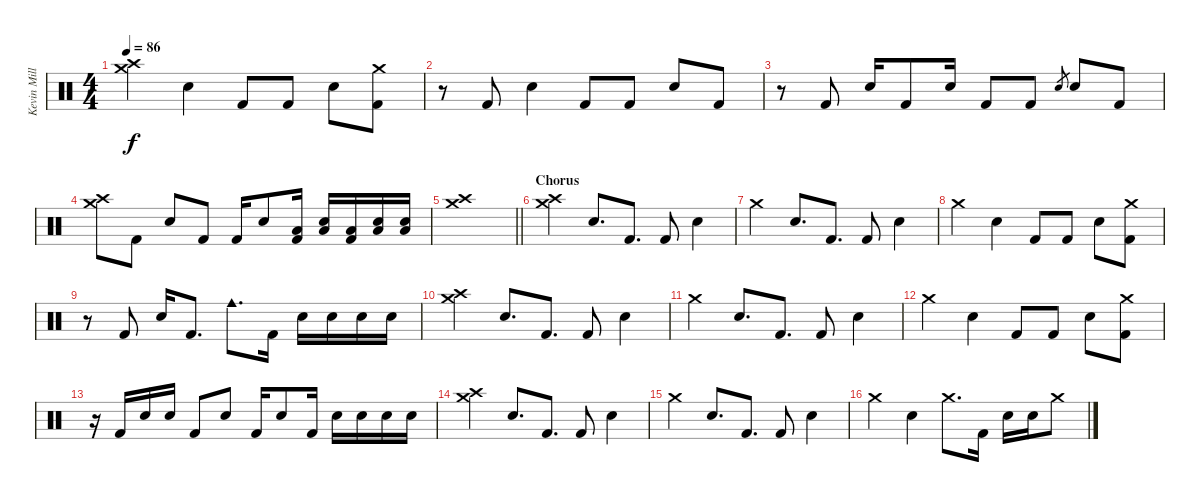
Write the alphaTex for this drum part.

\track ("Kevin Miller (Drums)" "Kevin Mill") {instrument percussion}
\staff {score}
\articulation defaults
\ts (4 4)
\tempo 86
\clef neutral
\ks c
("Crash medium (hit)" "Crash high (hit)").4{dy f} "Electric Snare (hit)".4 "Kick (hit) 2".8 "Kick (hit) 2".8 "Electric Snare (hit)".8 ("Kick (hit) 2" "Crash medium (hit)").8 |
r.8 "Kick (hit) 2".8 "Electric Snare (hit)".4 "Kick (hit) 2".8 "Kick (hit) 2".8 "Electric Snare (hit)".8 "Kick (hit) 2".8 |
r.8 "Kick (hit) 2".8 "Electric Snare (hit)".16 "Kick (hit) 2".8 "Electric Snare (hit)".16 "Kick (hit) 2".8 "Kick (hit) 2".8 "Electric Snare (hit)".8{gr} "Electric Snare (hit)".8 "Kick (hit) 2".8 |
("Crash medium (hit)" "Crash high (hit)").8 "Kick (hit) 2".8 "Electric Snare (hit)".8 "Kick (hit) 2".8 "Kick (hit) 2".16 "Electric Snare (hit)".8 ("Kick (hit) 2" "Low Tom (hit)").16 ("Electric Snare (hit)" "Low Tom (hit)").16 ("Kick (hit) 2" "Low Tom (hit)").16 ("Electric Snare (hit)" "Low Tom (hit)").16 ("Electric Snare (hit)" "Low Tom (hit)").16 |
\barLineRight lightlight
("Crash medium (hit)" "Crash high (hit)").1 |
\section ("" "Chorus")
("Crash medium (hit)" "Crash high (hit)").4 "Electric Snare (hit)".8{d} "Kick (hit) 2".8{d} "Kick (hit) 2".8 "Electric Snare (hit)".4 |
"Crash medium (hit)".4 "Electric Snare (hit)".8{d} "Kick (hit) 2".8{d} "Kick (hit) 2".8 "Electric Snare (hit)".4 |
"Crash medium (hit)".4 "Electric Snare (hit)".4 "Kick (hit) 2".8 "Kick (hit) 2".8 "Electric Snare (hit)".8 ("Crash medium (hit)" "Kick (hit) 2").8 |
r.8 "Kick (hit) 2".8 "Electric Snare (hit)".16 "Kick (hit) 2".8{d} "Cowbell medium (hit)".8{d} "Kick (hit) 2".16 "Electric Snare (hit)".16 "Electric Snare (hit)".16 "Electric Snare (hit)".16 "Electric Snare (hit)".16 |
("Crash medium (hit)" "Crash high (hit)").4 "Electric Snare (hit)".8{d} "Kick (hit) 2".8{d} "Kick (hit) 2".8 "Electric Snare (hit)".4 |
"Crash medium (hit)".4 "Electric Snare (hit)".8{d} "Kick (hit) 2".8{d} "Kick (hit) 2".8 "Electric Snare (hit)".4 |
"Crash medium (hit)".4 "Electric Snare (hit)".4 "Kick (hit) 2".8 "Kick (hit) 2".8 "Electric Snare (hit)".8 ("Crash medium (hit)" "Kick (hit) 2").8 |
r.16 "Kick (hit) 2".16 "Electric Snare (hit)".16 "Electric Snare (hit)".16 "Kick (hit) 2".8 "Electric Snare (hit)".8 "Kick (hit) 2".16 "Electric Snare (hit)".8 "Kick (hit) 2".16 "Snare (hit) 2".16 "Snare (hit) 2".16 "Snare (hit) 2".16 "Snare (hit) 2".16 |
("Crash medium (hit)" "Crash high (hit)").4 "Electric Snare (hit)".8{d} "Kick (hit) 2".8{d} "Kick (hit) 2".8 "Electric Snare (hit)".4 |
"Crash medium (hit)".4 "Electric Snare (hit)".8{d} "Kick (hit) 2".8{d} "Kick (hit) 2".8 "Electric Snare (hit)".4 |
"Crash medium (hit)".4 "Electric Snare (hit)".4 "Crash medium (hit)".8{d} "Kick (hit) 2".16 "Electric Snare (hit)".16 "Electric Snare (hit)".16 "Crash medium (hit)".8
